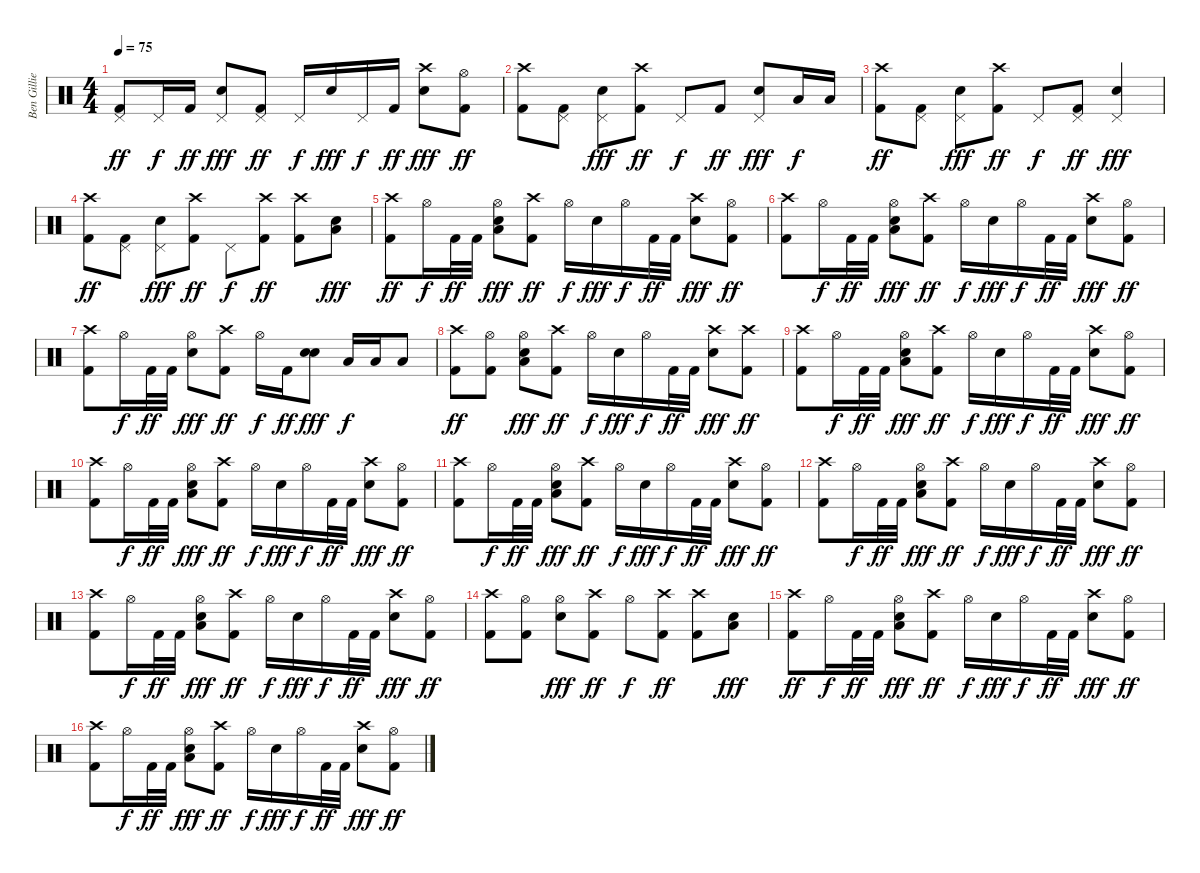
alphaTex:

\track ("Ben Gillies" "Ben Gillie") {instrument percussion}
\staff {score}
\articulation defaults
\ts (4 4)
\tempo 75
\clef neutral
\ks c
("Pedal Hi-Hat (hit)" "Kick (hit) 2").8{dy ff} "Pedal Hi-Hat (hit)".16{dy f} "Kick (hit) 2".16{dy ff} ("Pedal Hi-Hat (hit)" "Electric Snare (hit)").8{dy fff} ("Pedal Hi-Hat (hit)" "Kick (hit) 2").8{dy ff} "Pedal Hi-Hat (hit)".16{dy f} "Electric Snare (hit)".16{dy fff} "Pedal Hi-Hat (hit)".16{dy f} "Kick (hit) 2".16{dy ff} ("Crash high (hit)" "Electric Snare (hit)").8{dy fff} ("Hi-Hat (open)" "Kick (hit) 2").8{dy ff} |
("Crash high (hit)" "Kick (hit) 2").8 ("Pedal Hi-Hat (hit)" "Kick (hit) 2").8 ("Pedal Hi-Hat (hit)" "Electric Snare (hit)").8{dy fff} ("Crash high (hit)" "Kick (hit) 2").8{dy ff} "Pedal Hi-Hat (hit)".8{dy f} "Kick (hit) 2".8{dy ff} ("Pedal Hi-Hat (hit)" "Electric Snare (hit)").8{dy fff} "Low Tom (hit)".16{dy f} "Low Tom (hit)".16 |
("Crash high (hit)" "Kick (hit) 2").8{dy ff} ("Pedal Hi-Hat (hit)" "Kick (hit) 2").8 ("Pedal Hi-Hat (hit)" "Electric Snare (hit)").8{dy fff} ("Crash high (hit)" "Kick (hit) 2").8{dy ff} "Pedal Hi-Hat (hit)".8{dy f} ("Pedal Hi-Hat (hit)" "Kick (hit) 2").8{dy ff} ("Pedal Hi-Hat (hit)" "Electric Snare (hit)").4{dy fff} |
("Crash high (hit)" "Kick (hit) 2").8{dy ff} ("Pedal Hi-Hat (hit)" "Kick (hit) 2").8 ("Pedal Hi-Hat (hit)" "Electric Snare (hit)").8{dy fff} ("Crash high (hit)" "Kick (hit) 2").8{dy ff} "Pedal Hi-Hat (hit)".8{dy f} ("Crash high (hit)" "Kick (hit) 2").8{dy ff} ("Crash high (hit)" "Kick (hit) 2").8 ("Low Floor Tom (hit)" "Electric Snare (hit)").8{dy fff} |
("Crash high (hit)" "Kick (hit) 2").8{dy ff} "Hi-Hat (open)".16{dy f} "Kick (hit) 2".32{dy ff} "Kick (hit) 2".32 ("Low Floor Tom (hit)" "Hi-Hat (open)" "Electric Snare (hit)").8{dy fff} ("Crash high (hit)" "Kick (hit) 2").8{dy ff} "Hi-Hat (open)".16{dy f} "Electric Snare (hit)".16{dy fff} "Hi-Hat (open)".16{dy f} "Kick (hit) 2".32{dy ff} "Kick (hit) 2".32 ("Crash high (hit)" "Electric Snare (hit)").8{dy fff} ("Hi-Hat (open)" "Kick (hit) 2").8{dy ff} |
("Crash high (hit)" "Kick (hit) 2").8 "Hi-Hat (open)".16{dy f} "Kick (hit) 2".32{dy ff} "Kick (hit) 2".32 ("Low Floor Tom (hit)" "Hi-Hat (open)" "Electric Snare (hit)").8{dy fff} ("Crash high (hit)" "Kick (hit) 2").8{dy ff} "Hi-Hat (open)".16{dy f} "Electric Snare (hit)".16{dy fff} "Hi-Hat (open)".16{dy f} "Kick (hit) 2".32{dy ff} "Kick (hit) 2".32 ("Crash high (hit)" "Electric Snare (hit)").8{dy fff} ("Hi-Hat (open)" "Kick (hit) 2").8{dy ff} |
("Crash high (hit)" "Kick (hit) 2").8 "Hi-Hat (open)".16{dy f} "Kick (hit) 2".32{dy ff} "Kick (hit) 2".32 ("Hi-Hat (open)" "Electric Snare (hit)").8{dy fff} ("Crash high (hit)" "Kick (hit) 2").8{dy ff} "Hi-Hat (open)".16{dy f} "Kick (hit) 2".16{dy ff} ("Electric Snare (hit)" "Electric Snare (hit)").8{dy fff} "Low Tom (hit)".16{dy f} "Low Tom (hit)".16 "Low Tom (hit)".8 |
("Crash high (hit)" "Kick (hit) 2").8{dy ff} ("Hi-Hat (open)" "Kick (hit) 2").8 ("Low Floor Tom (hit)" "Hi-Hat (open)" "Electric Snare (hit)").8{dy fff} ("Crash high (hit)" "Kick (hit) 2").8{dy ff} "Hi-Hat (open)".16{dy f} "Electric Snare (hit)".16{dy fff} "Hi-Hat (open)".16{dy f} "Kick (hit) 2".32{dy ff} "Kick (hit) 2".32 ("Crash high (hit)" "Electric Snare (hit)").8{dy fff} ("Crash high (hit)" "Kick (hit) 2").8{dy ff} |
("Crash high (hit)" "Kick (hit) 2").8 "Hi-Hat (open)".16{dy f} "Kick (hit) 2".32{dy ff} "Kick (hit) 2".32 ("Low Floor Tom (hit)" "Hi-Hat (open)" "Electric Snare (hit)").8{dy fff} ("Crash high (hit)" "Kick (hit) 2").8{dy ff} "Hi-Hat (open)".16{dy f} "Electric Snare (hit)".16{dy fff} "Hi-Hat (open)".16{dy f} "Kick (hit) 2".32{dy ff} "Kick (hit) 2".32 ("Crash high (hit)" "Electric Snare (hit)").8{dy fff} ("Hi-Hat (open)" "Kick (hit) 2").8{dy ff} |
("Crash high (hit)" "Kick (hit) 2").8 "Hi-Hat (open)".16{dy f} "Kick (hit) 2".32{dy ff} "Kick (hit) 2".32 ("Low Floor Tom (hit)" "Hi-Hat (open)" "Electric Snare (hit)").8{dy fff} ("Crash high (hit)" "Kick (hit) 2").8{dy ff} "Hi-Hat (open)".16{dy f} "Electric Snare (hit)".16{dy fff} "Hi-Hat (open)".16{dy f} "Kick (hit) 2".32{dy ff} "Kick (hit) 2".32 ("Crash high (hit)" "Electric Snare (hit)").8{dy fff} ("Hi-Hat (open)" "Kick (hit) 2").8{dy ff} |
("Crash high (hit)" "Kick (hit) 2").8 "Hi-Hat (open)".16{dy f} "Kick (hit) 2".32{dy ff} "Kick (hit) 2".32 ("Low Floor Tom (hit)" "Hi-Hat (open)" "Electric Snare (hit)").8{dy fff} ("Crash high (hit)" "Kick (hit) 2").8{dy ff} "Hi-Hat (open)".16{dy f} "Electric Snare (hit)".16{dy fff} "Hi-Hat (open)".16{dy f} "Kick (hit) 2".32{dy ff} "Kick (hit) 2".32 ("Crash high (hit)" "Electric Snare (hit)").8{dy fff} ("Hi-Hat (open)" "Kick (hit) 2").8{dy ff} |
("Crash high (hit)" "Kick (hit) 2").8 "Hi-Hat (open)".16{dy f} "Kick (hit) 2".32{dy ff} "Kick (hit) 2".32 ("Low Floor Tom (hit)" "Hi-Hat (open)" "Electric Snare (hit)").8{dy fff} ("Crash high (hit)" "Kick (hit) 2").8{dy ff} "Hi-Hat (open)".16{dy f} "Electric Snare (hit)".16{dy fff} "Hi-Hat (open)".16{dy f} "Kick (hit) 2".32{dy ff} "Kick (hit) 2".32 ("Crash high (hit)" "Electric Snare (hit)").8{dy fff} ("Hi-Hat (open)" "Kick (hit) 2").8{dy ff} |
("Crash high (hit)" "Kick (hit) 2").8 "Hi-Hat (open)".16{dy f} "Kick (hit) 2".32{dy ff} "Kick (hit) 2".32 ("Low Floor Tom (hit)" "Hi-Hat (open)" "Electric Snare (hit)").8{dy fff} ("Crash high (hit)" "Kick (hit) 2").8{dy ff} "Hi-Hat (open)".16{dy f} "Electric Snare (hit)".16{dy fff} "Hi-Hat (open)".16{dy f} "Kick (hit) 2".32{dy ff} "Kick (hit) 2".32 ("Crash high (hit)" "Electric Snare (hit)").8{dy fff} ("Hi-Hat (open)" "Kick (hit) 2").8{dy ff} |
("Crash high (hit)" "Kick (hit) 2").8 ("Hi-Hat (open)" "Kick (hit) 2").8 ("Hi-Hat (open)" "Electric Snare (hit)").8{dy fff} ("Crash high (hit)" "Kick (hit) 2").8{dy ff} "Hi-Hat (open)".8{dy f} ("Crash high (hit)" "Kick (hit) 2").8{dy ff} ("Crash high (hit)" "Kick (hit) 2").8 ("Low Floor Tom (hit)" "Electric Snare (hit)").8{dy fff} |
("Crash high (hit)" "Kick (hit) 2").8{dy ff} "Hi-Hat (open)".16{dy f} "Kick (hit) 2".32{dy ff} "Kick (hit) 2".32 ("Low Floor Tom (hit)" "Hi-Hat (open)" "Electric Snare (hit)").8{dy fff} ("Crash high (hit)" "Kick (hit) 2").8{dy ff} "Hi-Hat (open)".16{dy f} "Electric Snare (hit)".16{dy fff} "Hi-Hat (open)".16{dy f} "Kick (hit) 2".32{dy ff} "Kick (hit) 2".32 ("Crash high (hit)" "Electric Snare (hit)").8{dy fff} ("Hi-Hat (open)" "Kick (hit) 2").8{dy ff} |
("Crash high (hit)" "Kick (hit) 2").8 "Hi-Hat (open)".16{dy f} "Kick (hit) 2".32{dy ff} "Kick (hit) 2".32 ("Low Floor Tom (hit)" "Hi-Hat (open)" "Electric Snare (hit)").8{dy fff} ("Crash high (hit)" "Kick (hit) 2").8{dy ff} "Hi-Hat (open)".16{dy f} "Electric Snare (hit)".16{dy fff} "Hi-Hat (open)".16{dy f} "Kick (hit) 2".32{dy ff} "Kick (hit) 2".32 ("Crash high (hit)" "Electric Snare (hit)").8{dy fff} ("Hi-Hat (open)" "Kick (hit) 2").8{dy ff}
